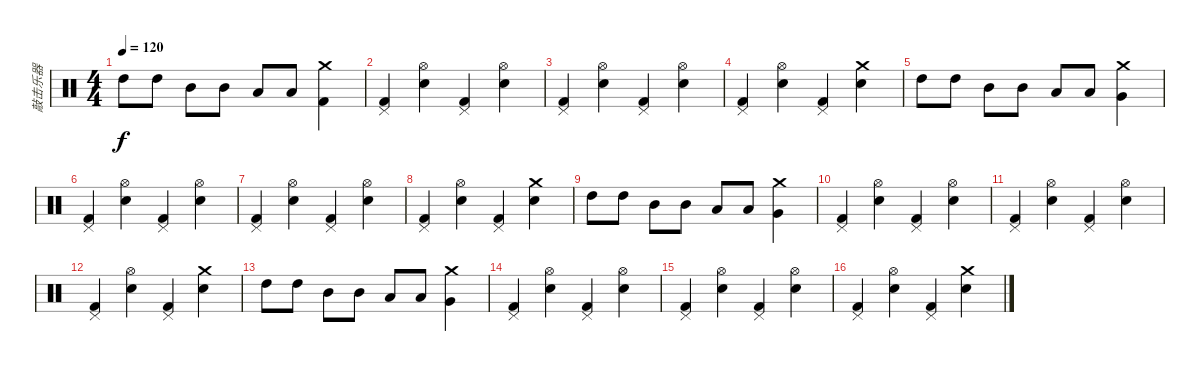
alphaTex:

\track ("敲击乐器" "敲击乐器") {instrument percussion}
\staff {score}
\articulation defaults
\ts (4 4)
\tempo 120
\clef neutral
\ks c "High Tom (hit)".8{dy f} "High Tom (hit)".8 "Mid Tom (hit)".8 "Mid Tom (hit)".8 "Low Tom (hit)".8 "Low Tom (hit)".8
("Crash medium (hit)" "Kick (hit) 2").4 |
("Pedal Hi-Hat (hit)" "Kick (hit) 2").4 ("Hi-Hat (open)" "Electric Snare (hit)").4 ("Pedal Hi-Hat (hit)" "Kick (hit) 2").4 ("Hi-Hat (open)" "Electric Snare (hit)").4 |
("Pedal Hi-Hat (hit)" "Kick (hit) 2").4 ("Hi-Hat (open)" "Electric Snare (hit)").4 ("Pedal Hi-Hat (hit)" "Kick (hit) 2").4 ("Hi-Hat (open)" "Electric Snare (hit)").4 |
("Pedal Hi-Hat (hit)" "Kick (hit) 2").4 ("Hi-Hat (open)" "Electric Snare (hit)").4 ("Pedal Hi-Hat (hit)" "Kick (hit) 2").4 ("Crash medium (hit)" "Electric Snare (hit)").4 |
"High Tom (hit)".8 "High Tom (hit)".8 "Mid Tom (hit)".8 "Mid Tom (hit)".8 "Low Tom (hit)".8 "Low Tom (hit)".8 ("Crash medium (hit)" "Very Low Tom (hit)").4 |
("Pedal Hi-Hat (hit)" "Kick (hit) 2").4 ("Hi-Hat (open)" "Electric Snare (hit)").4 ("Pedal Hi-Hat (hit)" "Kick (hit) 2").4 ("Hi-Hat (open)" "Electric Snare (hit)").4 |
("Pedal Hi-Hat (hit)" "Kick (hit) 2").4 ("Hi-Hat (open)" "Electric Snare (hit)").4 ("Pedal Hi-Hat (hit)" "Kick (hit) 2").4 ("Hi-Hat (open)" "Electric Snare (hit)").4 |
("Pedal Hi-Hat (hit)" "Kick (hit) 2").4 ("Hi-Hat (open)" "Electric Snare (hit)").4 ("Pedal Hi-Hat (hit)" "Kick (hit) 2").4 ("Crash medium (hit)" "Electric Snare (hit)").4 |
"High Tom (hit)".8 "High Tom (hit)".8 "Mid Tom (hit)".8 "Mid Tom (hit)".8 "Low Tom (hit)".8 "Low Tom (hit)".8 ("Crash medium (hit)" "Very Low Tom (hit)").4 |
("Pedal Hi-Hat (hit)" "Kick (hit) 2").4 ("Hi-Hat (open)" "Electric Snare (hit)").4 ("Pedal Hi-Hat (hit)" "Kick (hit) 2").4 ("Hi-Hat (open)" "Electric Snare (hit)").4 |
("Pedal Hi-Hat (hit)" "Kick (hit) 2").4 ("Hi-Hat (open)" "Electric Snare (hit)").4 ("Pedal Hi-Hat (hit)" "Kick (hit) 2").4 ("Hi-Hat (open)" "Electric Snare (hit)").4 |
("Pedal Hi-Hat (hit)" "Kick (hit) 2").4 ("Hi-Hat (open)" "Electric Snare (hit)").4 ("Pedal Hi-Hat (hit)" "Kick (hit) 2").4 ("Crash medium (hit)" "Electric Snare (hit)").4 |
"High Tom (hit)".8 "High Tom (hit)".8 "Mid Tom (hit)".8 "Mid Tom (hit)".8 "Low Tom (hit)".8 "Low Tom (hit)".8 ("Crash medium (hit)" "Very Low Tom (hit)").4 |
("Pedal Hi-Hat (hit)" "Kick (hit) 2").4 ("Hi-Hat (open)" "Electric Snare (hit)").4 ("Pedal Hi-Hat (hit)" "Kick (hit) 2").4 ("Hi-Hat (open)" "Electric Snare (hit)").4 |
("Pedal Hi-Hat (hit)" "Kick (hit) 2").4 ("Hi-Hat (open)" "Electric Snare (hit)").4 ("Pedal Hi-Hat (hit)" "Kick (hit) 2").4 ("Hi-Hat (open)" "Electric Snare (hit)").4 |
("Pedal Hi-Hat (hit)" "Kick (hit) 2").4 ("Hi-Hat (open)" "Electric Snare (hit)").4 ("Pedal Hi-Hat (hit)" "Kick (hit) 2").4 ("Crash medium (hit)" "Electric Snare (hit)").4
